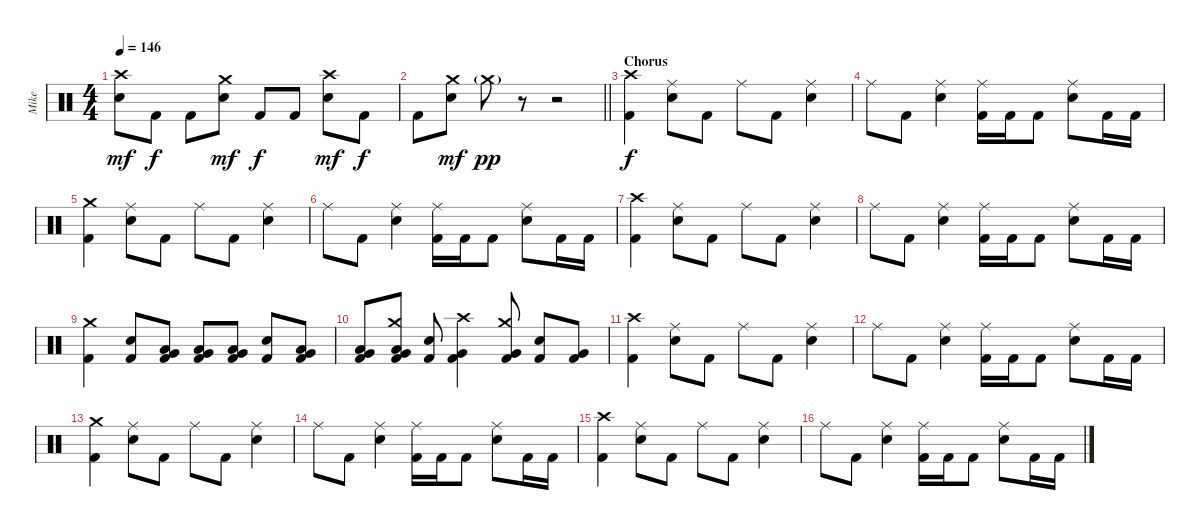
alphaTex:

\track ("Mike" "Mike") {instrument percussion}
\staff {score}
\articulation defaults
\ts (4 4)
\tempo 146
\clef neutral
\ks c
("Crash high (hit)" "Snare (hit) 2").8{dy mf} "Kick (hit) 2".8{dy f} "Kick (hit) 2".8 ("Crash medium (hit)" "Snare (hit) 2").8{dy mf} "Kick (hit) 2".8{dy f} "Kick (hit) 2".8 ("Crash high (hit)" "Snare (hit) 2").8{dy mf} "Kick (hit) 2".8{dy f} |
\barLineRight lightlight "Kick (hit) 2".8
("Crash medium (hit)" "Snare (hit) 2").8{dy mf} "Crash medium (hit)"{g}.8{dy pp} r.8 r.2 |
\section ("" "Chorus")
("Crash high (hit)" "Kick (hit) 2").4{dy f} ("Snare (hit) 2" "Ride (middle)").8 "Kick (hit) 2".8 "Ride (middle)".8 "Kick (hit) 2".8 ("Snare (hit) 2" "Ride (middle)").4 |
"Ride (middle)".8 "Kick (hit) 2".8 ("Snare (hit) 2" "Ride (middle)").4 ("Ride (middle)" "Kick (hit) 2").16 "Kick (hit) 2".16 "Kick (hit) 2".8 ("Snare (hit) 2" "Ride (middle)").8 "Kick (hit) 2".16 "Kick (hit) 2".16 |
("Crash medium (hit)" "Kick (hit) 2").4 ("Snare (hit) 2" "Ride (middle)").8 "Kick (hit) 2".8 "Ride (middle)".8 "Kick (hit) 2".8 ("Snare (hit) 2" "Ride (middle)").4 |
"Ride (middle)".8 "Kick (hit) 2".8 ("Snare (hit) 2" "Ride (middle)").4 ("Ride (middle)" "Kick (hit) 2").16 "Kick (hit) 2".16 "Kick (hit) 2".8 ("Snare (hit) 2" "Ride (middle)").8 "Kick (hit) 2".16 "Kick (hit) 2".16 |
("Crash high (hit)" "Kick (hit) 2").4 ("Snare (hit) 2" "Ride (middle)").8 "Kick (hit) 2".8 "Ride (middle)".8 "Kick (hit) 2".8 ("Snare (hit) 2" "Ride (middle)").4 |
"Ride (middle)".8 "Kick (hit) 2".8 ("Snare (hit) 2" "Ride (middle)").4 ("Ride (middle)" "Kick (hit) 2").16 "Kick (hit) 2".16 "Kick (hit) 2".8 ("Snare (hit) 2" "Ride (middle)").8 "Kick (hit) 2".16 "Kick (hit) 2".16 |
("Crash medium (hit)" "Kick (hit) 2").4 ("Snare (hit) 2" "Kick (hit) 2").8 ("Very Low Tom (hit)" "Low Floor Tom (hit)" "Kick (hit) 2").8 ("Low Tom (hit)" "Very Low Tom (hit)" "Kick (hit) 2").8 ("Very Low Tom (hit)" "Low Floor Tom (hit)" "Kick (hit) 2").8 ("Snare (hit) 2" "Kick (hit) 2").8 ("Very Low Tom (hit)" "Low Floor Tom (hit)" "Kick (hit) 2").8 |
("Low Tom (hit)" "Very Low Tom (hit)" "Kick (hit) 2").8 ("Crash medium (hit)" "Very Low Tom (hit)" "Low Floor Tom (hit)" "Kick (hit) 2").8 ("Snare (hit) 2" "Kick (hit) 2").8 ("Crash high (hit)" "Very Low Tom (hit)" "Kick (hit) 2").4 ("Crash medium (hit)" "Very Low Tom (hit)" "Kick (hit) 2").8 ("Snare (hit) 2" "Kick (hit) 2").8 ("Very Low Tom (hit)" "Kick (hit) 2").8 |
("Crash high (hit)" "Kick (hit) 2").4 ("Snare (hit) 2" "Ride (middle)").8 "Kick (hit) 2".8 "Ride (middle)".8 "Kick (hit) 2".8 ("Snare (hit) 2" "Ride (middle)").4 |
"Ride (middle)".8 "Kick (hit) 2".8 ("Snare (hit) 2" "Ride (middle)").4 ("Ride (middle)" "Kick (hit) 2").16 "Kick (hit) 2".16 "Kick (hit) 2".8 ("Snare (hit) 2" "Ride (middle)").8 "Kick (hit) 2".16 "Kick (hit) 2".16 |
("Crash medium (hit)" "Kick (hit) 2").4 ("Snare (hit) 2" "Ride (middle)").8 "Kick (hit) 2".8 "Ride (middle)".8 "Kick (hit) 2".8 ("Snare (hit) 2" "Ride (middle)").4 |
"Ride (middle)".8 "Kick (hit) 2".8 ("Snare (hit) 2" "Ride (middle)").4 ("Ride (middle)" "Kick (hit) 2").16 "Kick (hit) 2".16 "Kick (hit) 2".8 ("Snare (hit) 2" "Ride (middle)").8 "Kick (hit) 2".16 "Kick (hit) 2".16 |
("Crash high (hit)" "Kick (hit) 2").4 ("Snare (hit) 2" "Ride (middle)").8 "Kick (hit) 2".8 "Ride (middle)".8 "Kick (hit) 2".8 ("Snare (hit) 2" "Ride (middle)").4 |
"Ride (middle)".8 "Kick (hit) 2".8 ("Snare (hit) 2" "Ride (middle)").4 ("Ride (middle)" "Kick (hit) 2").16 "Kick (hit) 2".16 "Kick (hit) 2".8 ("Snare (hit) 2" "Ride (middle)").8 "Kick (hit) 2".16 "Kick (hit) 2".16
